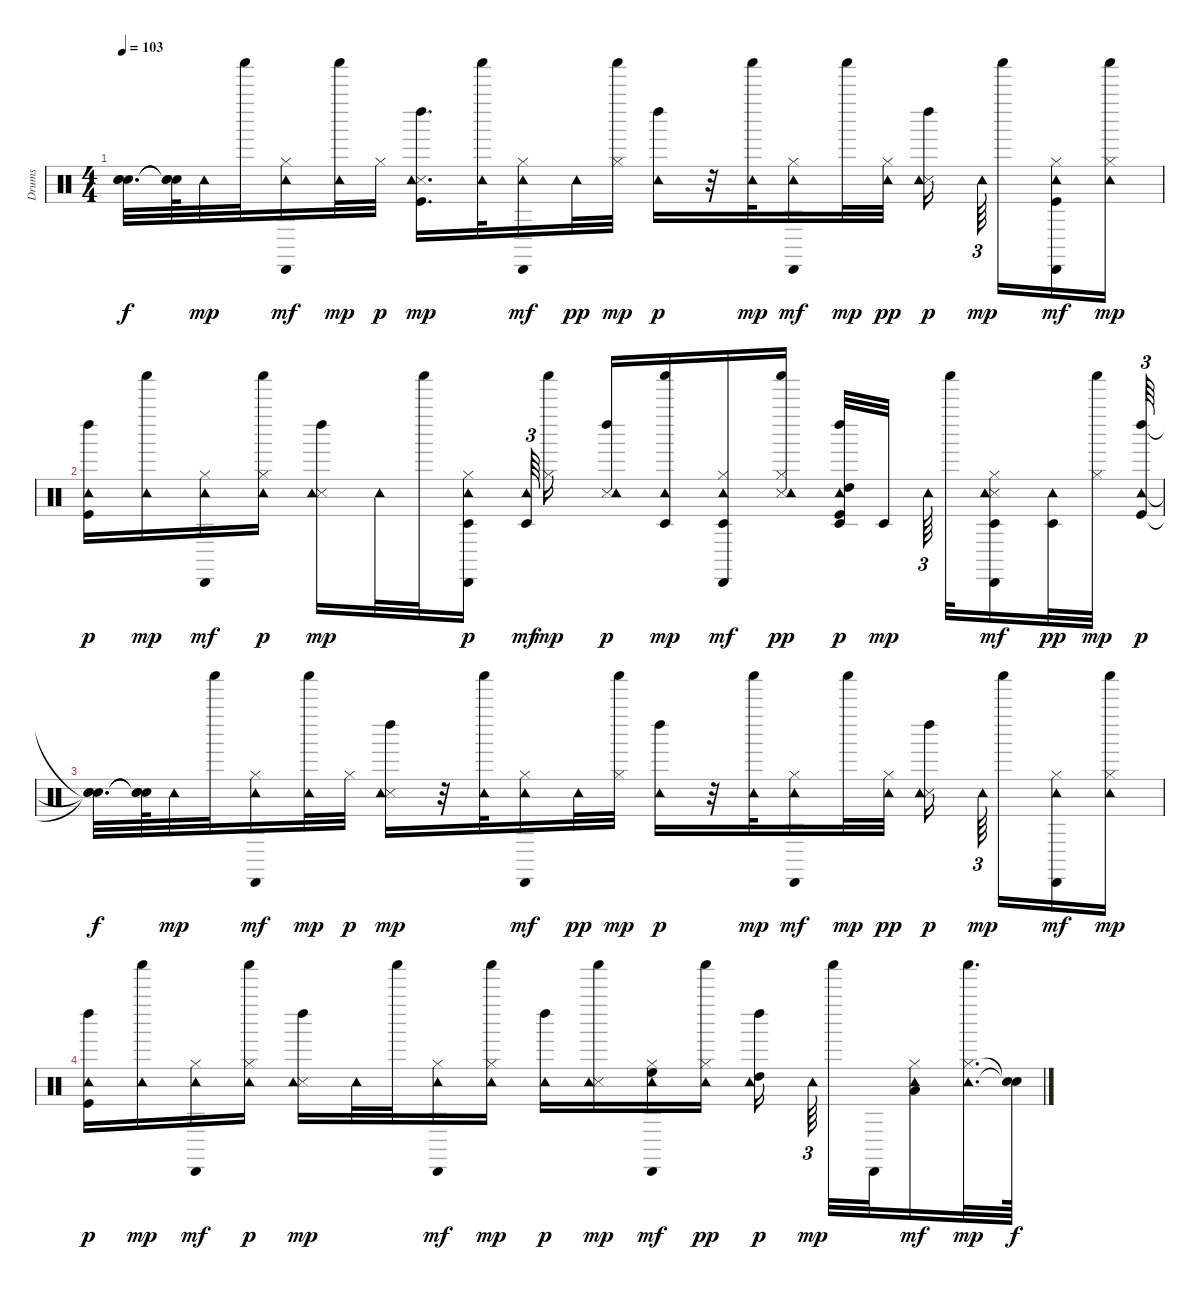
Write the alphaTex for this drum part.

\track ("Drums" "Drums") {instrument percussion}
\staff {score}
\articulation defaults
\ts (4 4)
\tempo 103
\clef neutral
\ks c
("Snare (hit)"{t} "Snare (hit)"{t} "Snare (hit)"{t}).32{d dy f} ("Snare (hit)"{t} "Snare (hit)"{t} "Snare (hit)"{t}).64 "Tambourine (hit)".32{dy mp} "Shaker (hit)".32 ("Cabasa (hit)" "Hi-Hat (closed)" "Tambourine (hit)").16{dy mf} ("Tambourine (hit)" "Shaker (hit)").32{dy mp} "Hi-Hat (closed)".32{dy p} ("Left Maraca (hit)" "Kick (hit)" "Snare (side stick) 3" "Tambourine (hit)").16{d dy mp} ("Tambourine (hit)" "Shaker (hit)").32 ("Cabasa (hit)" "Hi-Hat (closed)" "Tambourine (hit)").16{dy mf} "Tambourine (hit)".32{dy pp} ("Hi-Hat (closed)" "Shaker (hit)").32{dy mp} ("Left Maraca (hit)" "Tambourine (hit)").16{dy p} r.32 ("Tambourine (hit)" "Shaker (hit)").32{dy mp} ("Cabasa (hit)" "Hi-Hat (closed)" "Tambourine (hit)").16{dy mf} "Shaker (hit)".32{dy mp} ("Hi-Hat (closed)" "Tambourine (hit)").32{dy pp} ("Left Maraca (hit)" "Snare (side stick) 3" "Tambourine (hit)").16{dy p beam splitsecondary} "Tambourine (hit)".64{tu (3 2) dy mp beam splitsecondary} "Shaker (hit)".16 ("Cabasa (hit)" "Kick (hit)" "Hi-Hat (closed)" "Tambourine (hit)").16{dy mf} ("Tambourine (hit)" "Hi-Hat (closed)" "Shaker (hit)").16{dy mp} |
("Left Maraca (hit)" "Kick (hit)" "Tambourine (hit)").16{dy p} ("Tambourine (hit)" "Shaker (hit)").16{dy mp} ("Cabasa (hit)" "Hi-Hat (closed)" "Tambourine (hit)").16{dy mf} ("Tambourine (hit)" "Shaker (hit)" "Hi-Hat (closed)").16{dy p} ("Left Maraca (hit)" "Snare (side stick) 3" "Tambourine (hit)").16{dy mp} "Tambourine (hit)".32 "Shaker (hit)".32 ("Cabasa (hit)" "Hi-Hat (closed)" "Tambourine (hit)" "Timbale low (hit)").16{dy p beam splitsecondary} ("Tambourine (hit)" "Timbale low (hit)").64{tu (3 2) dy mf} ("Hi-Hat (closed)" "Shaker (hit)").16{dy mp} ("Left Maraca (hit)" "Snare (side stick) 3" "Tambourine (hit)").16{dy p} ("Tambourine (hit)" "Timbale low (hit)" "Shaker (hit)").16{dy mp} ("Cabasa (hit)" "Hi-Hat (closed)" "Timbale low (hit)" "Tambourine (hit)").16{dy mf} ("Shaker (hit)" "Snare (side stick) 3" "Hi-Hat (closed)" "Tambourine (hit)").16{dy pp} ("Timbale low (hit)" "Left Maraca (hit)" "Kick (hit)" "High Tom (hit)" "Tambourine (hit)").32{dy p} "Timbale low (hit)".32{dy mp beam splitsecondary} "Tambourine (hit)".64{tu (3 2) beam splitsecondary} "Shaker (hit)".32 ("Cabasa (hit)" "Timbale low (hit)" "Snare (side stick) 3" "Hi-Hat (closed)" "Tambourine (hit)").16{dy mf} ("Timbale low (hit)" "Tambourine (hit)").32{dy pp} ("Hi-Hat (closed)" "Shaker (hit)").32{dy mp beam splitsecondary} ("Left Maraca (hit)" "Kick (hit)" "Tambourine (hit)").64{tu (3 2) dy p} |
("Snare (hit)"{t} "Snare (hit)"{t} "Snare (hit)"{t}).32{d dy f} ("Snare (hit)"{t} "Snare (hit)"{t} "Snare (hit)"{t}).64 "Tambourine (hit)".32{dy mp} "Shaker (hit)".32 ("Cabasa (hit)" "Hi-Hat (closed)" "Tambourine (hit)").16{dy mf} ("Tambourine (hit)" "Shaker (hit)").32{dy mp} "Hi-Hat (closed)".32{dy p} ("Left Maraca (hit)" "Snare (side stick) 3" "Tambourine (hit)").16{dy mp} r.32 ("Tambourine (hit)" "Shaker (hit)").32 ("Cabasa (hit)" "Hi-Hat (closed)" "Tambourine (hit)").16{dy mf} "Tambourine (hit)".32{dy pp} ("Hi-Hat (closed)" "Shaker (hit)").32{dy mp} ("Left Maraca (hit)" "Tambourine (hit)").16{dy p} r.32 ("Tambourine (hit)" "Shaker (hit)").32{dy mp} ("Cabasa (hit)" "Hi-Hat (closed)" "Tambourine (hit)").16{dy mf} "Shaker (hit)".32{dy mp} ("Hi-Hat (closed)" "Tambourine (hit)").32{dy pp} ("Left Maraca (hit)" "Snare (side stick) 3" "Tambourine (hit)").16{dy p beam splitsecondary} "Tambourine (hit)".64{tu (3 2) dy mp beam splitsecondary} "Shaker (hit)".16 ("Cabasa (hit)" "Hi-Hat (closed)" "Tambourine (hit)").16{dy mf} ("Tambourine (hit)" "Hi-Hat (closed)" "Shaker (hit)").16{dy mp} |
("Left Maraca (hit)" "Kick (hit)" "Tambourine (hit)").16{dy p} ("Tambourine (hit)" "Shaker (hit)").16{dy mp} ("Cabasa (hit)" "Hi-Hat (closed)" "Tambourine (hit)").16{dy mf} ("Tambourine (hit)" "Shaker (hit)" "Hi-Hat (closed)").16{dy p} ("Left Maraca (hit)" "Snare (side stick) 3" "Tambourine (hit)").16{dy mp} "Tambourine (hit)".32 "Shaker (hit)".32 ("Cabasa (hit)" "Hi-Hat (closed)" "Tambourine (hit)").16{dy mf} ("Tambourine (hit)" "Hi-Hat (closed)" "Shaker (hit)").16{dy mp} ("Left Maraca (hit)" "Tambourine (hit)").16{dy p} ("Snare (side stick) 3" "Tambourine (hit)" "Shaker (hit)").16{dy mp} ("Cabasa (hit)" "High Floor Tom (hit)" "Hi-Hat (closed)" "Tambourine (hit)").16{dy mf} ("Shaker (hit)" "Hi-Hat (closed)" "Tambourine (hit)").16{dy pp} ("Left Maraca (hit)" "High Tom (hit)" "Tambourine (hit)").16{dy p beam splitsecondary} "Tambourine (hit)".64{tu (3 2) dy mp beam splitsecondary} "Shaker (hit)".32 "Cabasa (hit)".32 ("Low Tom (hit)" "Hi-Hat (closed)" "Tambourine (hit)").16{dy mf} ("Tambourine (hit)" "Hi-Hat (closed)" "Shaker (hit)").32{d dy mp} ("Snare (hit)"{t} "Snare (hit)"{t}).64{dy f}
